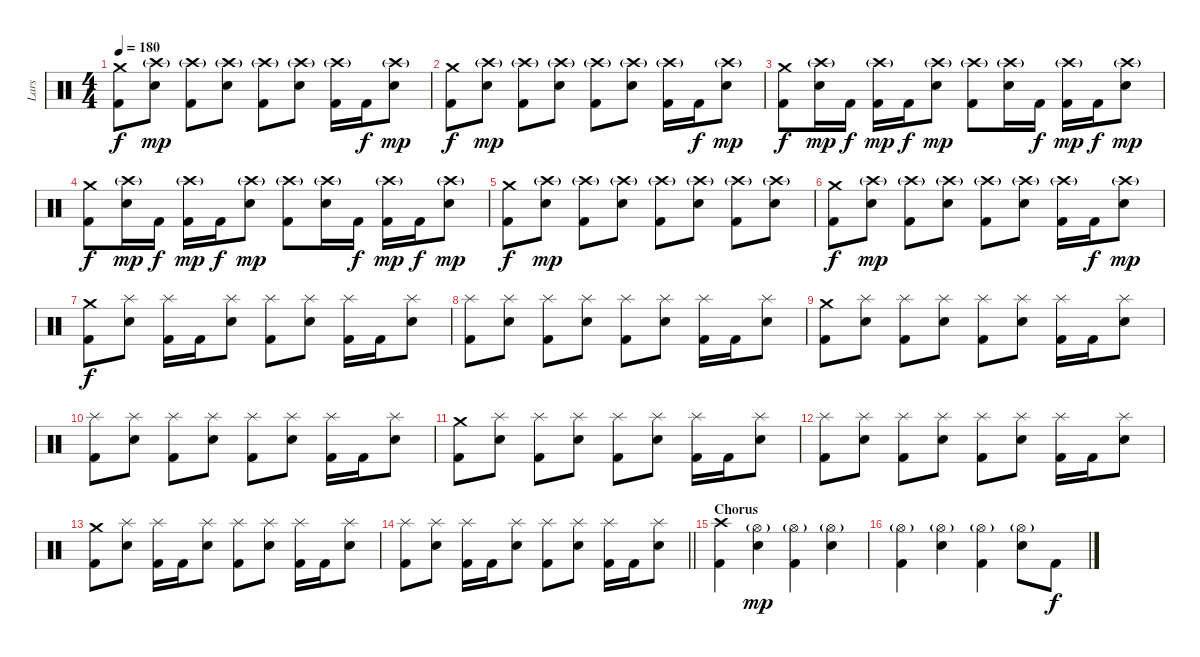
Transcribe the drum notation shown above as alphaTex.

\track ("Lars" "Lars") {instrument percussion}
\staff {score}
\articulation defaults
\ts (4 4)
\tempo 180
\clef neutral
\ks c
("Crash medium (hit)" "Kick (hit) 2").8{dy f} ("Crash high (hit)"{g} "Electric Snare (hit)").8{dy mp} ("Crash high (hit)"{g} "Kick (hit) 2").8 ("Crash high (hit)"{g} "Electric Snare (hit)").8 ("Crash high (hit)"{g} "Kick (hit) 2").8 ("Crash high (hit)"{g} "Electric Snare (hit)").8 ("Crash high (hit)"{g} "Kick (hit) 2").16 "Kick (hit) 2".16{dy f} ("Crash high (hit)"{g} "Electric Snare (hit)").8{dy mp} |
("Crash medium (hit)" "Kick (hit) 2").8{dy f} ("Crash high (hit)"{g} "Electric Snare (hit)").8{dy mp} ("Crash high (hit)"{g} "Kick (hit) 2").8 ("Crash high (hit)"{g} "Electric Snare (hit)").8 ("Crash high (hit)"{g} "Kick (hit) 2").8 ("Crash high (hit)"{g} "Electric Snare (hit)").8 ("Crash high (hit)"{g} "Kick (hit) 2").16 "Kick (hit) 2".16{dy f} ("Crash high (hit)"{g} "Electric Snare (hit)").8{dy mp} |
("Crash medium (hit)" "Kick (hit) 2").8{dy f} ("Crash high (hit)"{g} "Electric Snare (hit)").16{dy mp} "Kick (hit) 2".16{dy f} ("Crash high (hit)"{g} "Kick (hit) 2").16{dy mp} "Kick (hit) 2".16{dy f} ("Crash high (hit)"{g} "Electric Snare (hit)").8{dy mp} ("Crash high (hit)"{g} "Kick (hit) 2").8 ("Crash high (hit)"{g} "Electric Snare (hit)").16 "Kick (hit) 2".16{dy f} ("Crash high (hit)"{g} "Kick (hit) 2").16{dy mp} "Kick (hit) 2".16{dy f} ("Crash high (hit)"{g} "Electric Snare (hit)").8{dy mp} |
("Crash medium (hit)" "Kick (hit) 2").8{dy f} ("Crash high (hit)"{g} "Electric Snare (hit)").16{dy mp} "Kick (hit) 2".16{dy f} ("Crash high (hit)"{g} "Kick (hit) 2").16{dy mp} "Kick (hit) 2".16{dy f} ("Crash high (hit)"{g} "Electric Snare (hit)").8{dy mp} ("Crash high (hit)"{g} "Kick (hit) 2").8 ("Crash high (hit)"{g} "Electric Snare (hit)").16 "Kick (hit) 2".16{dy f} ("Crash high (hit)"{g} "Kick (hit) 2").16{dy mp} "Kick (hit) 2".16{dy f} ("Crash high (hit)"{g} "Electric Snare (hit)").8{dy mp} |
("Crash medium (hit)" "Kick (hit) 2").8{dy f} ("Crash high (hit)"{g} "Electric Snare (hit)").8{dy mp} ("Crash high (hit)"{g} "Kick (hit) 2").8 ("Crash high (hit)"{g} "Electric Snare (hit)").8 ("Crash high (hit)"{g} "Kick (hit) 2").8 ("Crash high (hit)"{g} "Electric Snare (hit)").8 ("Crash high (hit)"{g} "Kick (hit) 2").8 ("Crash high (hit)"{g} "Electric Snare (hit)").8 |
("Crash medium (hit)" "Kick (hit) 2").8{dy f} ("Crash high (hit)"{g} "Electric Snare (hit)").8{dy mp} ("Crash high (hit)"{g} "Kick (hit) 2").8 ("Crash high (hit)"{g} "Electric Snare (hit)").8 ("Crash high (hit)"{g} "Kick (hit) 2").8 ("Crash high (hit)"{g} "Electric Snare (hit)").8 ("Crash high (hit)"{g} "Kick (hit) 2").16 "Kick (hit) 2".16{dy f} ("Crash high (hit)"{g} "Electric Snare (hit)").8{dy mp} |
("Crash medium (hit)" "Kick (hit) 2").8{dy f} ("Splash (hit)" "Electric Snare (hit)").8 ("Splash (hit)" "Kick (hit) 2").16 "Kick (hit) 2".16 ("Splash (hit)" "Electric Snare (hit)").8 ("Splash (hit)" "Kick (hit) 2").8 ("Splash (hit)" "Electric Snare (hit)").8 ("Splash (hit)" "Kick (hit) 2").16 "Kick (hit) 2".16 ("Splash (hit)" "Electric Snare (hit)").8 |
("Splash (hit)" "Kick (hit) 2").8 ("Splash (hit)" "Electric Snare (hit)").8 ("Splash (hit)" "Kick (hit) 2").8 ("Splash (hit)" "Electric Snare (hit)").8 ("Splash (hit)" "Kick (hit) 2").8 ("Splash (hit)" "Electric Snare (hit)").8 ("Splash (hit)" "Kick (hit) 2").16 "Kick (hit) 2".16 ("Splash (hit)" "Electric Snare (hit)").8 |
("Crash medium (hit)" "Kick (hit) 2").8 ("Splash (hit)" "Electric Snare (hit)").8 ("Splash (hit)" "Kick (hit) 2").8 ("Splash (hit)" "Electric Snare (hit)").8 ("Splash (hit)" "Kick (hit) 2").8 ("Splash (hit)" "Electric Snare (hit)").8 ("Splash (hit)" "Kick (hit) 2").16 "Kick (hit) 2".16 ("Splash (hit)" "Electric Snare (hit)").8 |
("Splash (hit)" "Kick (hit) 2").8 ("Splash (hit)" "Electric Snare (hit)").8 ("Splash (hit)" "Kick (hit) 2").8 ("Splash (hit)" "Electric Snare (hit)").8 ("Splash (hit)" "Kick (hit) 2").8 ("Splash (hit)" "Electric Snare (hit)").8 ("Splash (hit)" "Kick (hit) 2").16 "Kick (hit) 2".16 ("Splash (hit)" "Electric Snare (hit)").8 |
("Crash medium (hit)" "Kick (hit) 2").8 ("Splash (hit)" "Electric Snare (hit)").8 ("Splash (hit)" "Kick (hit) 2").8 ("Splash (hit)" "Electric Snare (hit)").8 ("Splash (hit)" "Kick (hit) 2").8 ("Splash (hit)" "Electric Snare (hit)").8 ("Splash (hit)" "Kick (hit) 2").16 "Kick (hit) 2".16 ("Splash (hit)" "Electric Snare (hit)").8 |
("Splash (hit)" "Kick (hit) 2").8 ("Splash (hit)" "Electric Snare (hit)").8 ("Splash (hit)" "Kick (hit) 2").8 ("Splash (hit)" "Electric Snare (hit)").8 ("Splash (hit)" "Kick (hit) 2").8 ("Splash (hit)" "Electric Snare (hit)").8 ("Splash (hit)" "Kick (hit) 2").16 "Kick (hit) 2".16 ("Splash (hit)" "Electric Snare (hit)").8 |
("Crash medium (hit)" "Kick (hit) 2").8 ("Splash (hit)" "Electric Snare (hit)").8 ("Splash (hit)" "Kick (hit) 2").16 "Kick (hit) 2".16 ("Splash (hit)" "Electric Snare (hit)").8 ("Splash (hit)" "Kick (hit) 2").8 ("Splash (hit)" "Electric Snare (hit)").8 ("Splash (hit)" "Kick (hit) 2").16 "Kick (hit) 2".16 ("Splash (hit)" "Electric Snare (hit)").8 |
\barLineRight lightlight
("Splash (hit)" "Kick (hit) 2").8 ("Splash (hit)" "Electric Snare (hit)").8 ("Splash (hit)" "Kick (hit) 2").16 "Kick (hit) 2".16 ("Splash (hit)" "Electric Snare (hit)").8 ("Splash (hit)" "Kick (hit) 2").8 ("Splash (hit)" "Electric Snare (hit)").8 ("Splash (hit)" "Kick (hit) 2").16 "Kick (hit) 2".16 ("Splash (hit)" "Electric Snare (hit)").8 |
\section ("" "Chorus")
("Crash high (hit)" "Kick (hit) 2").4 ("Hi-Hat (open)"{g} "Electric Snare (hit)").4{dy mp} ("Hi-Hat (open)"{g} "Kick (hit) 2").4 ("Hi-Hat (open)"{g} "Electric Snare (hit)").4 |
("Hi-Hat (open)"{g} "Kick (hit) 2").4 ("Hi-Hat (open)"{g} "Electric Snare (hit)").4 ("Hi-Hat (open)"{g} "Kick (hit) 2").4 ("Hi-Hat (open)"{g} "Electric Snare (hit)").8 "Kick (hit) 2".8{dy f}
